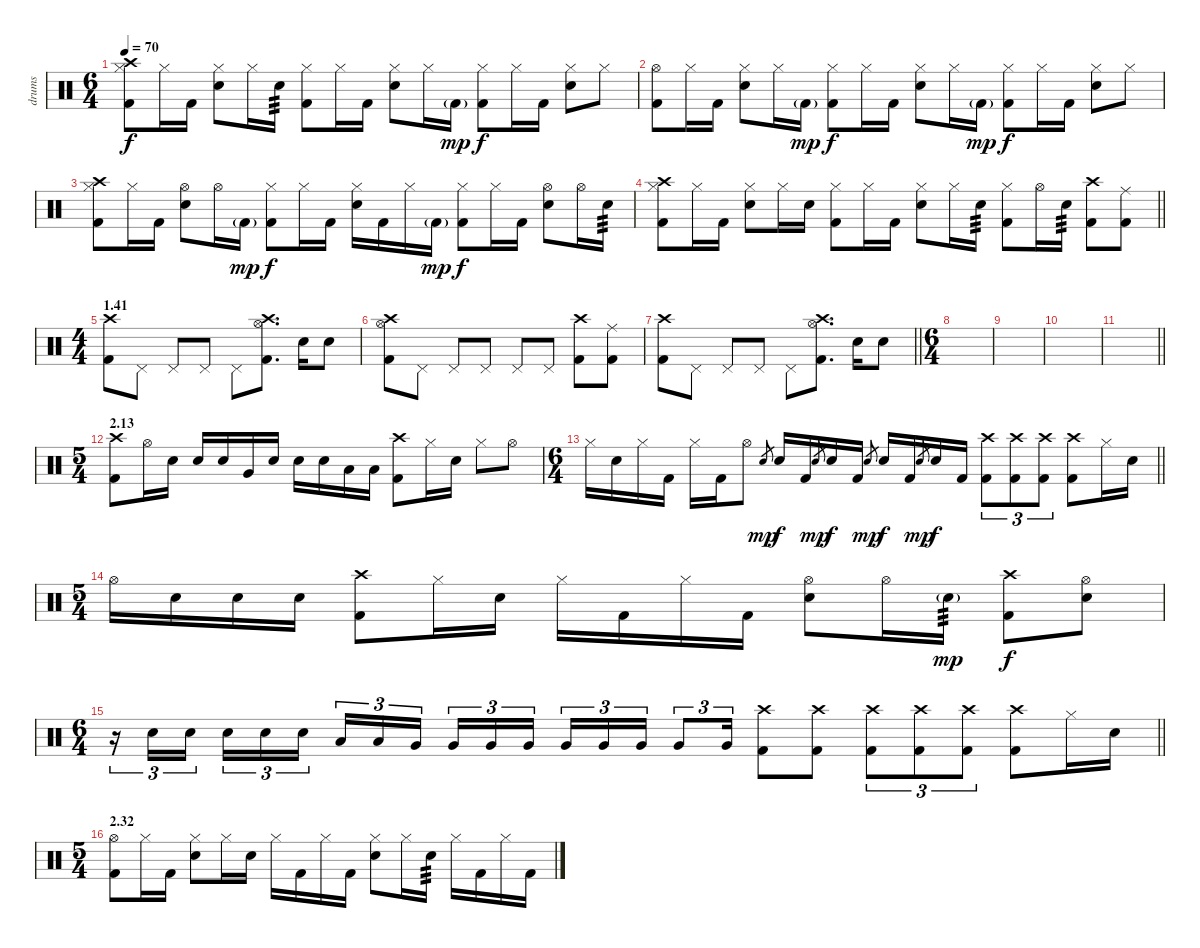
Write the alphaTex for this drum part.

\track ("drums" "drums") {instrument percussion}
\staff {score}
\articulation defaults
\ts (6 4)
\tempo 70
\clef neutral
\ks c
("Crash high (hit)" "Hi-Hat (closed)" "Kick (hit) 2").8{dy f} "Hi-Hat (closed)".16 "Kick (hit) 2".16 ("Hi-Hat (closed)" "Electric Snare (hit)").8 "Hi-Hat (closed)".16 "Electric Snare (hit)".16{tp 3} ("Hi-Hat (closed)" "Kick (hit) 2").8 "Hi-Hat (closed)".16 "Kick (hit) 2".16 ("Hi-Hat (closed)" "Electric Snare (hit)").8 "Hi-Hat (closed)".16 "Kick (hit) 2"{g}.16{dy mp} ("Hi-Hat (closed)" "Kick (hit) 2").8{dy f} "Hi-Hat (closed)".16 "Kick (hit) 2".16 ("Hi-Hat (closed)" "Electric Snare (hit)").8 "Hi-Hat (closed)".8 |
("Hi-Hat (open)" "Kick (hit) 2").8 "Hi-Hat (closed)".16 "Kick (hit) 2".16 ("Hi-Hat (closed)" "Electric Snare (hit)").8 "Hi-Hat (closed)".16 "Kick (hit) 2"{g}.16{dy mp} ("Hi-Hat (closed)" "Kick (hit) 2").8{dy f} "Hi-Hat (closed)".16 "Kick (hit) 2".16 ("Hi-Hat (closed)" "Electric Snare (hit)").8 "Hi-Hat (closed)".16 "Kick (hit) 2"{g}.16{dy mp} ("Hi-Hat (closed)" "Kick (hit) 2").8{dy f} "Hi-Hat (closed)".16 "Kick (hit) 2".16 ("Hi-Hat (closed)" "Electric Snare (hit)").8 "Hi-Hat (closed)".8 |
("Crash high (hit)" "Hi-Hat (closed)" "Kick (hit) 2").8 "Hi-Hat (closed)".16 "Kick (hit) 2".16 ("Hi-Hat (open)" "Electric Snare (hit)").8 "Hi-Hat (open)".16 "Kick (hit) 2"{g}.16{dy mp} ("Hi-Hat (closed)" "Kick (hit) 2").8{dy f} "Hi-Hat (closed)".16 "Kick (hit) 2".16 ("Hi-Hat (closed)" "Electric Snare (hit)").16 "Kick (hit) 2".16 "Hi-Hat (closed)".16 "Kick (hit) 2"{g}.16{dy mp} ("Hi-Hat (closed)" "Kick (hit) 2").8{dy f} "Hi-Hat (closed)".16 "Kick (hit) 2".16 ("Hi-Hat (open)" "Electric Snare (hit)").8 "Hi-Hat (open)".16 "Electric Snare (hit)".16{tp 3} |
\barLineRight lightlight
("Crash high (hit)" "Hi-Hat (closed)" "Kick (hit) 2").8 "Hi-Hat (closed)".16 "Kick (hit) 2".16 ("Hi-Hat (closed)" "Electric Snare (hit)").8 "Hi-Hat (closed)".16 "Electric Snare (hit)".16 ("Hi-Hat (closed)" "Kick (hit) 2").8 "Hi-Hat (closed)".16 "Kick (hit) 2".16 ("Hi-Hat (closed)" "Electric Snare (hit)").8 "Hi-Hat (closed)".16 "Electric Snare (hit)".16{tp 3} ("Hi-Hat (closed)" "Kick (hit) 2").8 "Hi-Hat (open)".16 "Electric Snare (hit)".16{tp 3} ("Crash high (hit)" "Kick (hit) 2").8 ("Ride (middle)" "Kick (hit) 2").8 |
\ts (4 4)
\section ("" "1.41")
("Crash high (hit)" "Kick (hit) 2").8 "Pedal Hi-Hat (hit)".8 "Pedal Hi-Hat (hit)".8 "Pedal Hi-Hat (hit)".8 "Pedal Hi-Hat (hit)".8 ("Crash high (hit)" "Hi-Hat (open)" "Kick (hit) 2").8{d} "Electric Snare (hit)".16 "Electric Snare (hit)".8 |
("Crash high (hit)" "Hi-Hat (open)" "Kick (hit) 2").8 "Pedal Hi-Hat (hit)".8 "Pedal Hi-Hat (hit)".8 "Pedal Hi-Hat (hit)".8 "Pedal Hi-Hat (hit)".8 "Pedal Hi-Hat (hit)".8 ("Crash high (hit)" "Kick (hit) 2").8 ("Ride (middle)" "Kick (hit) 2").8 |
\barLineRight lightlight
("Crash high (hit)" "Kick (hit) 2").8 "Pedal Hi-Hat (hit)".8 "Pedal Hi-Hat (hit)".8 "Pedal Hi-Hat (hit)".8 "Pedal Hi-Hat (hit)".8 ("Crash high (hit)" "Hi-Hat (open)" "Kick (hit) 2").8{d} "Electric Snare (hit)".16 "Electric Snare (hit)".8 |
\ts (6 4)
|
|
|
\barLineRight lightlight
|
\ts (5 4)
\section ("" "2.13")
("Crash high (hit)" "Kick (hit) 2").8 "Hi-Hat (open)".16 "Electric Snare (hit)".16 "Electric Snare (hit)".16 "Electric Snare (hit)".16 "Very Low Tom (hit)".16 "Electric Snare (hit)".16 "Electric Snare (hit)".16 "Electric Snare (hit)".16 "Low Tom (hit)".16 "Low Tom (hit)".16 ("Crash high (hit)" "Kick (hit) 2").8 "Hi-Hat (closed)".16 "Electric Snare (hit)".16 "Hi-Hat (closed)".8 "Hi-Hat (open)".8 |
\ts (6 4)
\barLineRight lightlight "Hi-Hat (closed)".16 "Electric Snare (hit)".16 "Hi-Hat (closed)".16 "Kick (hit) 2".16 "Hi-Hat (closed)".16 "Kick (hit) 2".16 "Hi-Hat (open)".8 "Electric Snare (hit)".8{gr dy mp} "Electric Snare (hit)".16{dy f} "Kick (hit) 2".16 "Electric Snare (hit)".8{gr dy mp} "Electric Snare (hit)".16{dy f} "Kick (hit) 2".16 "Electric Snare (hit)".8{gr dy mp} "Electric Snare (hit)".16{dy f} "Kick (hit) 2".16 "Electric Snare (hit)".8{gr dy mp} "Electric Snare (hit)".16{dy f} "Kick (hit) 2".16
("Crash high (hit)" "Kick (hit) 2").8{tu (3 2)} ("Crash high (hit)" "Kick (hit) 2").8{tu (3 2)} ("Crash high (hit)" "Kick (hit) 2").8{tu (3 2)} ("Crash high (hit)" "Kick (hit) 2").8 "Hi-Hat (closed)".16 "Electric Snare (hit)".16 |
\ts (5 4)
"Hi-Hat (open)".16 "Electric Snare (hit)".16 "Electric Snare (hit)".16 "Electric Snare (hit)".16 ("Crash high (hit)" "Kick (hit) 2").8 "Hi-Hat (closed)".16 "Electric Snare (hit)".16 "Hi-Hat (closed)".16 "Kick (hit) 2".16 "Hi-Hat (closed)".16 "Kick (hit) 2".16 ("Hi-Hat (open)" "Electric Snare (hit)").8 "Hi-Hat (open)".16 "Electric Snare (hit)"{g}.16{tp 3 dy mp} ("Crash high (hit)" "Kick (hit) 2").8{dy f} ("Hi-Hat (open)" "Electric Snare (hit)").8 |
\ts (6 4)
\barLineRight lightlight
r.16{tu (3 2)} "Electric Snare (hit)".16{tu (3 2)} "Electric Snare (hit)".16{tu (3 2) beam splitsecondary} "Electric Snare (hit)".16{tu (3 2)} "Electric Snare (hit)".16{tu (3 2)} "Electric Snare (hit)".16{tu (3 2) beam splitsecondary} "Low Tom (hit)".16{tu (3 2)} "Low Tom (hit)".16{tu (3 2)} "Very Low Tom (hit)".16{tu (3 2) beam splitsecondary} "Very Low Tom (hit)".16{tu (3 2)} "Very Low Tom (hit)".16{tu (3 2)} "Very Low Tom (hit)".16{tu (3 2) beam splitsecondary} "Very Low Tom (hit)".16{tu (3 2)} "Very Low Tom (hit)".16{tu (3 2)} "Very Low Tom (hit)".16{tu (3 2)} "Very Low Tom (hit)".8{tu (3 2)} "Very Low Tom (hit)".16{tu (3 2)} ("Crash high (hit)" "Kick (hit) 2").8 ("Crash high (hit)" "Kick (hit) 2").8 ("Crash high (hit)" "Kick (hit) 2").8{tu (3 2)} ("Crash high (hit)" "Kick (hit) 2").8{tu (3 2)} ("Crash high (hit)" "Kick (hit) 2").8{tu (3 2)} ("Crash high (hit)" "Kick (hit) 2").8 "Hi-Hat (closed)".16 "Electric Snare (hit)".16 |
\ts (5 4)
\section ("" "2.32")
("Hi-Hat (open)" "Kick (hit) 2").8 "Hi-Hat (closed)".16 "Kick (hit) 2".16 ("Hi-Hat (closed)" "Electric Snare (hit)").8 "Hi-Hat (closed)".16 "Electric Snare (hit)".16 "Hi-Hat (closed)".16 "Kick (hit) 2".16 "Hi-Hat (closed)".16 "Kick (hit) 2".16 ("Hi-Hat (closed)" "Electric Snare (hit)").8 "Hi-Hat (closed)".16 "Electric Snare (hit)".16{tp 3} "Hi-Hat (closed)".16 "Kick (hit) 2".16 "Hi-Hat (closed)".16 "Kick (hit) 2".16
